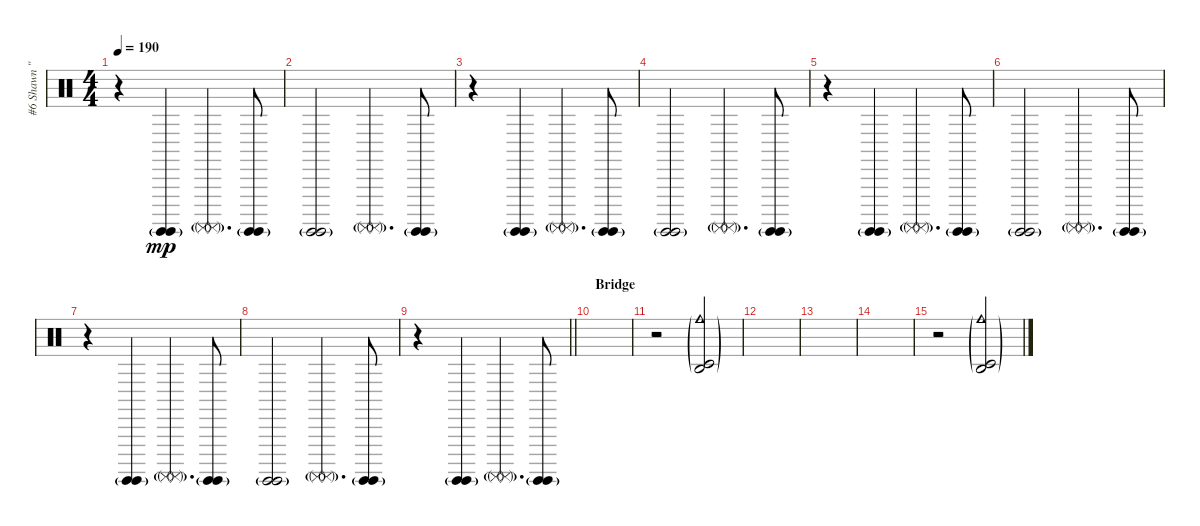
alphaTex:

\track ("#6 Shawn \"Clown\" Crahan" "#6 Shawn \"") {instrument percussion}
\staff {score}
\articulation defaults
\ts (4 4)
\tempo 190
\clef neutral
\ks c
r.4{dy mp} ("Surdo (hit)"{g} "Surdo (hit)"{g}).4 ("Surdo (mute)"{g} "Surdo (mute)"{g}).4{d} ("Surdo (hit)"{g} "Surdo (hit)"{g}).8 |
("Surdo (hit)"{g} "Surdo (hit)"{g}).2 ("Surdo (mute)"{g} "Surdo (mute)"{g}).4{d} ("Surdo (hit)"{g} "Surdo (hit)"{g}).8 |
r.4 ("Surdo (hit)"{g} "Surdo (hit)"{g}).4 ("Surdo (mute)"{g} "Surdo (mute)"{g}).4{d} ("Surdo (hit)"{g} "Surdo (hit)"{g}).8 |
("Surdo (hit)"{g} "Surdo (hit)"{g}).2 ("Surdo (mute)"{g} "Surdo (mute)"{g}).4{d} ("Surdo (hit)"{g} "Surdo (hit)"{g}).8 |
r.4 ("Surdo (hit)"{g} "Surdo (hit)"{g}).4 ("Surdo (mute)"{g} "Surdo (mute)"{g}).4{d} ("Surdo (hit)"{g} "Surdo (hit)"{g}).8 |
("Surdo (hit)"{g} "Surdo (hit)"{g}).2 ("Surdo (mute)"{g} "Surdo (mute)"{g}).4{d} ("Surdo (hit)"{g} "Surdo (hit)"{g}).8 |
r.4 ("Surdo (hit)"{g} "Surdo (hit)"{g}).4 ("Surdo (mute)"{g} "Surdo (mute)"{g}).4{d} ("Surdo (hit)"{g} "Surdo (hit)"{g}).8 |
("Surdo (hit)"{g} "Surdo (hit)"{g}).2 ("Surdo (mute)"{g} "Surdo (mute)"{g}).4{d} ("Surdo (hit)"{g} "Surdo (hit)"{g}).8 |
\barLineRight lightlight
r.4 ("Surdo (hit)"{g} "Surdo (hit)"{g}).4 ("Surdo (mute)"{g} "Surdo (mute)"{g}).4{d} ("Surdo (hit)"{g} "Surdo (hit)"{g}).8 |
\section ("" "Bridge")
|
r.2 ("Cowbell medium (hit)"{g} "Timbale low (hit)"{g} "Agogo high (hit)"{g}).2 |
|
|
|
r.2 ("Cowbell medium (hit)"{g} "Timbale low (hit)"{g} "Agogo high (hit)"{g}).2
